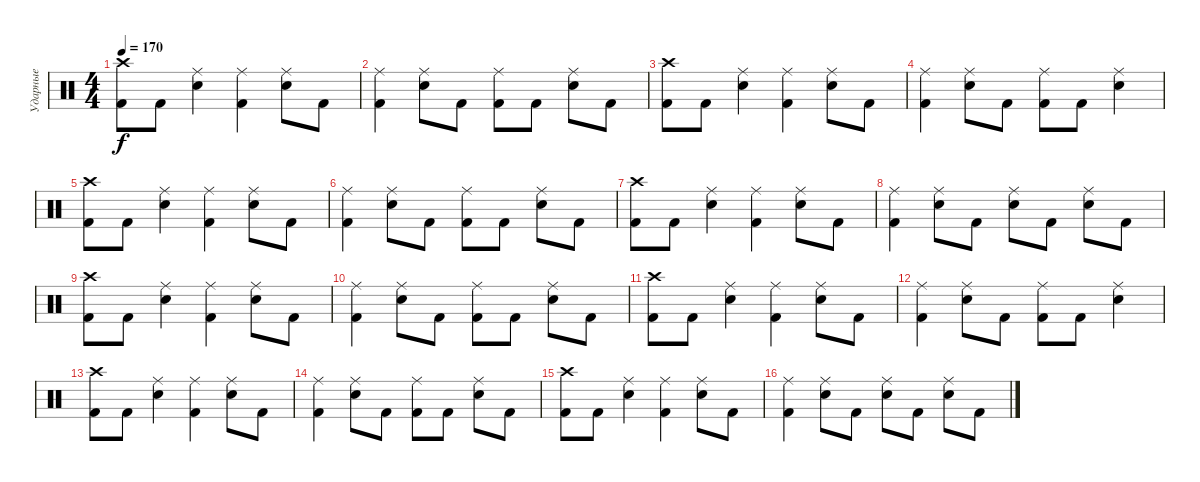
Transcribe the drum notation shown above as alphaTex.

\track ("Ударные" "Ударные") {instrument percussion}
\staff {score}
\articulation defaults
\ts (4 4)
\tempo 170
\clef neutral
\ks c
("Crash high (hit)" "Kick (hit) 2").8{dy f} "Kick (hit) 2".8 ("Ride (middle)" "Electric Snare (hit)").4 ("Ride (middle)" "Kick (hit) 2").4 ("Ride (middle)" "Electric Snare (hit)").8 "Kick (hit) 2".8 |
("Ride (middle)" "Kick (hit) 2").4 ("Ride (middle)" "Electric Snare (hit)").8 "Kick (hit) 2".8 ("Ride (middle)" "Kick (hit) 2").8 "Kick (hit) 2".8 ("Ride (middle)" "Electric Snare (hit)").8 "Kick (hit) 2".8 |
("Crash high (hit)" "Kick (hit) 2").8 "Kick (hit) 2".8 ("Ride (middle)" "Electric Snare (hit)").4 ("Ride (middle)" "Kick (hit) 2").4 ("Ride (middle)" "Electric Snare (hit)").8 "Kick (hit) 2".8 |
("Ride (middle)" "Kick (hit) 2").4 ("Ride (middle)" "Electric Snare (hit)").8 "Kick (hit) 2".8 ("Ride (middle)" "Kick (hit) 2").8 "Kick (hit) 2".8 ("Ride (middle)" "Electric Snare (hit)").4 |
("Crash high (hit)" "Kick (hit) 2").8 "Kick (hit) 2".8 ("Ride (middle)" "Electric Snare (hit)").4 ("Ride (middle)" "Kick (hit) 2").4 ("Ride (middle)" "Electric Snare (hit)").8 "Kick (hit) 2".8 |
("Ride (middle)" "Kick (hit) 2").4 ("Ride (middle)" "Electric Snare (hit)").8 "Kick (hit) 2".8 ("Ride (middle)" "Kick (hit) 2").8 "Kick (hit) 2".8 ("Ride (middle)" "Electric Snare (hit)").8 "Kick (hit) 2".8 |
("Crash high (hit)" "Kick (hit) 2").8 "Kick (hit) 2".8 ("Ride (middle)" "Electric Snare (hit)").4 ("Ride (middle)" "Kick (hit) 2").4 ("Ride (middle)" "Electric Snare (hit)").8 "Kick (hit) 2".8 |
("Ride (middle)" "Kick (hit) 2").4 ("Ride (middle)" "Electric Snare (hit)").8 "Kick (hit) 2".8 ("Ride (middle)" "Electric Snare (hit)").8 "Kick (hit) 2".8 ("Ride (middle)" "Electric Snare (hit)").8 "Kick (hit) 2".8 |
("Crash high (hit)" "Kick (hit) 2").8 "Kick (hit) 2".8 ("Ride (middle)" "Electric Snare (hit)").4 ("Ride (middle)" "Kick (hit) 2").4 ("Ride (middle)" "Electric Snare (hit)").8 "Kick (hit) 2".8 |
("Ride (middle)" "Kick (hit) 2").4 ("Ride (middle)" "Electric Snare (hit)").8 "Kick (hit) 2".8 ("Ride (middle)" "Kick (hit) 2").8 "Kick (hit) 2".8 ("Ride (middle)" "Electric Snare (hit)").8 "Kick (hit) 2".8 |
("Crash high (hit)" "Kick (hit) 2").8 "Kick (hit) 2".8 ("Ride (middle)" "Electric Snare (hit)").4 ("Ride (middle)" "Kick (hit) 2").4 ("Ride (middle)" "Electric Snare (hit)").8 "Kick (hit) 2".8 |
("Ride (middle)" "Kick (hit) 2").4 ("Ride (middle)" "Electric Snare (hit)").8 "Kick (hit) 2".8 ("Ride (middle)" "Kick (hit) 2").8 "Kick (hit) 2".8 ("Ride (middle)" "Electric Snare (hit)").4 |
("Crash high (hit)" "Kick (hit) 2").8 "Kick (hit) 2".8 ("Ride (middle)" "Electric Snare (hit)").4 ("Ride (middle)" "Kick (hit) 2").4 ("Ride (middle)" "Electric Snare (hit)").8 "Kick (hit) 2".8 |
("Ride (middle)" "Kick (hit) 2").4 ("Ride (middle)" "Electric Snare (hit)").8 "Kick (hit) 2".8 ("Ride (middle)" "Kick (hit) 2").8 "Kick (hit) 2".8 ("Ride (middle)" "Electric Snare (hit)").8 "Kick (hit) 2".8 |
("Crash high (hit)" "Kick (hit) 2").8 "Kick (hit) 2".8 ("Ride (middle)" "Electric Snare (hit)").4 ("Ride (middle)" "Kick (hit) 2").4 ("Ride (middle)" "Electric Snare (hit)").8 "Kick (hit) 2".8 |
("Ride (middle)" "Kick (hit) 2").4 ("Ride (middle)" "Electric Snare (hit)").8 "Kick (hit) 2".8 ("Ride (middle)" "Electric Snare (hit)").8 "Kick (hit) 2".8 ("Ride (middle)" "Electric Snare (hit)").8 "Kick (hit) 2".8
